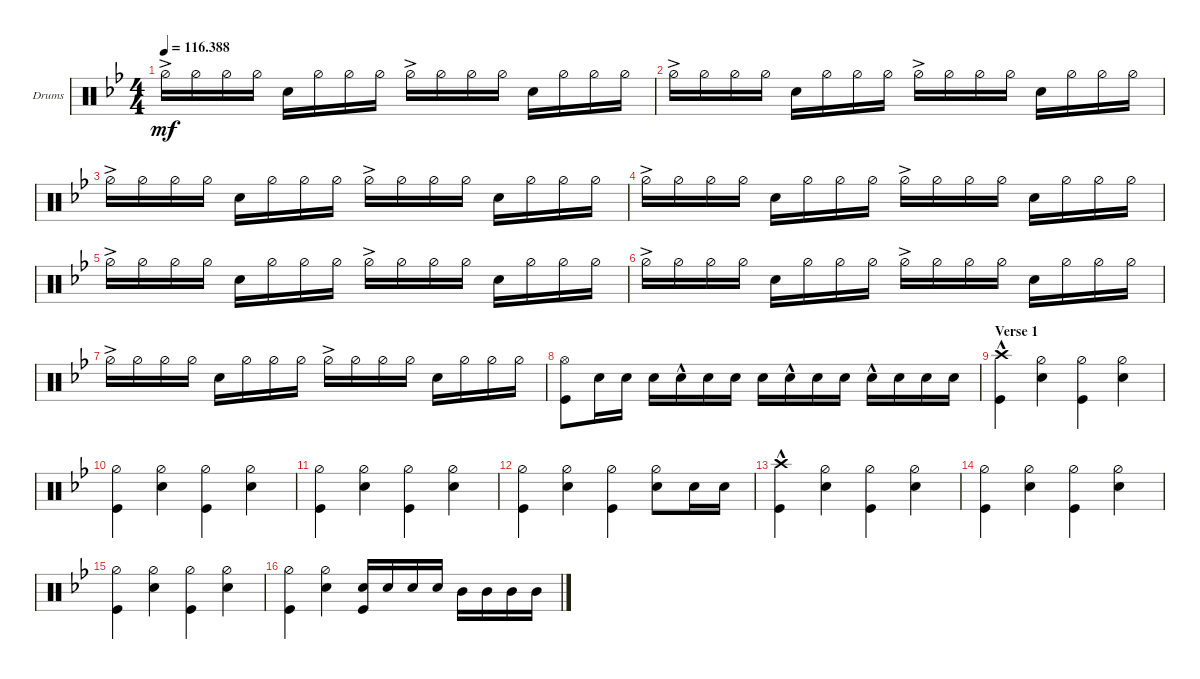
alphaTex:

\bracketExtendMode groupsimilarinstruments
\firstSystemTrackNameOrientation horizontal
\otherSystemsTrackNameOrientation horizontal
\track ("Drumkit" "Drums") {instrument percussion}
\staff {score}
\articulation defaults
\ts (4 4)
\tempo
116.388
\accidentals auto
\clef neutral
\ottava regular
\simile none
\ks gminor "Hi-Hat (half)"{ac}.16{dy mf} "Hi-Hat (half)".16 "Hi-Hat (half)".16 "Hi-Hat (half)".16 "Snare (hit) 2".16 "Hi-Hat (half)".16 "Hi-Hat (half)".16 "Hi-Hat (half)".16 "Hi-Hat (half)"{ac}.16 "Hi-Hat (half)".16 "Hi-Hat (half)".16 "Hi-Hat (half)".16 "Snare (hit) 2".16 "Hi-Hat (half)".16 "Hi-Hat (half)".16 "Hi-Hat (half)".16
|
"Hi-Hat (half)"{ac}.16 "Hi-Hat (half)".16 "Hi-Hat (half)".16 "Hi-Hat (half)".16 "Snare (hit) 2".16 "Hi-Hat (half)".16 "Hi-Hat (half)".16 "Hi-Hat (half)".16 "Hi-Hat (half)"{ac}.16 "Hi-Hat (half)".16 "Hi-Hat (half)".16 "Hi-Hat (half)".16 "Snare (hit) 2".16 "Hi-Hat (half)".16 "Hi-Hat (half)".16 "Hi-Hat (half)".16 |
"Hi-Hat (half)"{ac}.16 "Hi-Hat (half)".16 "Hi-Hat (half)".16 "Hi-Hat (half)".16 "Snare (hit) 2".16 "Hi-Hat (half)".16 "Hi-Hat (half)".16 "Hi-Hat (half)".16 "Hi-Hat (half)"{ac}.16 "Hi-Hat (half)".16 "Hi-Hat (half)".16 "Hi-Hat (half)".16 "Snare (hit) 2".16 "Hi-Hat (half)".16 "Hi-Hat (half)".16 "Hi-Hat (half)".16 |
"Hi-Hat (half)"{ac}.16 "Hi-Hat (half)".16 "Hi-Hat (half)".16 "Hi-Hat (half)".16 "Snare (hit) 2".16 "Hi-Hat (half)".16 "Hi-Hat (half)".16 "Hi-Hat (half)".16 "Hi-Hat (half)"{ac}.16 "Hi-Hat (half)".16 "Hi-Hat (half)".16 "Hi-Hat (half)".16 "Snare (hit) 2".16 "Hi-Hat (half)".16 "Hi-Hat (half)".16 "Hi-Hat (half)".16 |
"Hi-Hat (half)"{ac}.16 "Hi-Hat (half)".16 "Hi-Hat (half)".16 "Hi-Hat (half)".16 "Snare (hit) 2".16 "Hi-Hat (half)".16 "Hi-Hat (half)".16 "Hi-Hat (half)".16 "Hi-Hat (half)"{ac}.16 "Hi-Hat (half)".16 "Hi-Hat (half)".16 "Hi-Hat (half)".16 "Snare (hit) 2".16 "Hi-Hat (half)".16 "Hi-Hat (half)".16 "Hi-Hat (half)".16 |
"Hi-Hat (half)"{ac}.16 "Hi-Hat (half)".16 "Hi-Hat (half)".16 "Hi-Hat (half)".16 "Snare (hit) 2".16 "Hi-Hat (half)".16 "Hi-Hat (half)".16 "Hi-Hat (half)".16 "Hi-Hat (half)"{ac}.16 "Hi-Hat (half)".16 "Hi-Hat (half)".16 "Hi-Hat (half)".16 "Snare (hit) 2".16 "Hi-Hat (half)".16 "Hi-Hat (half)".16 "Hi-Hat (half)".16 |
"Hi-Hat (half)"{ac}.16 "Hi-Hat (half)".16 "Hi-Hat (half)".16 "Hi-Hat (half)".16 "Snare (hit) 2".16 "Hi-Hat (half)".16 "Hi-Hat (half)".16 "Hi-Hat (half)".16 "Hi-Hat (half)"{ac}.16 "Hi-Hat (half)".16 "Hi-Hat (half)".16 "Hi-Hat (half)".16 "Snare (hit) 2".16 "Hi-Hat (half)".16 "Hi-Hat (half)".16 "Hi-Hat (half)".16 |
("Hi-Hat (open)" "Kick (hit)").8 "Snare (hit) 2".16 "Snare (hit) 2".16 "Snare (hit) 2".16 "Snare (hit) 2"{hac}.16 "Snare (hit) 2".16 "Snare (hit) 2".16 "Snare (hit) 2".16 "Snare (hit) 2"{hac}.16 "Snare (hit) 2".16 "Snare (hit) 2".16 "Snare (hit) 2"{hac}.16 "Snare (hit) 2".16 "Snare (hit) 2".16 "Snare (hit) 2".16 |
\section ("" "Verse 1")
("Kick (hit)" "Crash high (hit)"{hac}).4 ("Hi-Hat (half)" "Snare (hit) 2").4 ("Hi-Hat (half)" "Kick (hit)").4 ("Hi-Hat (half)" "Snare (hit) 2").4 |
("Hi-Hat (half)" "Kick (hit)").4 ("Hi-Hat (half)" "Snare (hit) 2").4 ("Hi-Hat (half)" "Kick (hit)").4 ("Hi-Hat (half)" "Snare (hit) 2").4 |
("Hi-Hat (half)" "Kick (hit)").4 ("Hi-Hat (half)" "Snare (hit) 2").4 ("Hi-Hat (half)" "Kick (hit)").4 ("Hi-Hat (half)" "Snare (hit) 2").4 |
("Hi-Hat (half)" "Kick (hit)").4 ("Hi-Hat (half)" "Snare (hit) 2").4 ("Hi-Hat (half)" "Kick (hit)").4 ("Hi-Hat (half)" "Snare (hit) 2").8 "Snare (hit) 2".16 "Snare (hit) 2".16 |
("Kick (hit)" "Crash high (hit)"{hac}).4 ("Hi-Hat (half)" "Snare (hit) 2").4 ("Hi-Hat (half)" "Kick (hit)").4 ("Hi-Hat (half)" "Snare (hit) 2").4 |
("Hi-Hat (half)" "Kick (hit)").4 ("Hi-Hat (half)" "Snare (hit) 2").4 ("Hi-Hat (half)" "Kick (hit)").4 ("Hi-Hat (half)" "Snare (hit) 2").4 |
("Hi-Hat (half)" "Kick (hit)").4 ("Hi-Hat (half)" "Snare (hit) 2").4 ("Hi-Hat (half)" "Kick (hit)").4 ("Hi-Hat (half)" "Snare (hit) 2").4 |
("Hi-Hat (half)" "Kick (hit)").4 ("Hi-Hat (half)" "Snare (hit) 2").4 ("Snare (hit) 2" "Kick (hit)").16 "Snare (hit) 2".16 "Snare (hit) 2".16 "Snare (hit) 2".16 "Mid Tom (hit)".16 "Mid Tom (hit)".16 "Mid Tom (hit)".16 "Mid Tom (hit)".16
